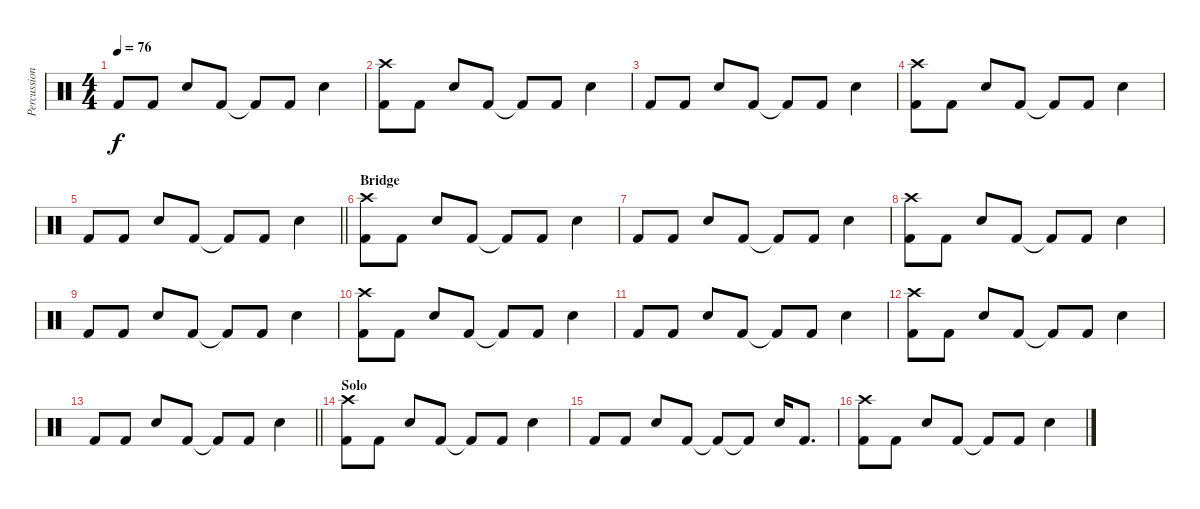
\track ("Percussion" "Percussion") {instrument percussion}
\staff {score}
\articulation defaults
\ts (4 4)
\tempo 76
\clef neutral
\ks c "Kick (hit) 2".8{dy f} "Kick (hit) 2".8 "Electric Snare (hit)".8 "Kick (hit) 2".8 "Kick (hit) 2"{t}.8 "Kick (hit) 2".8 "Electric Snare (hit)".4
|
("Kick (hit) 2" "Crash high (hit)").8 "Kick (hit) 2".8 "Electric Snare (hit)".8 "Kick (hit) 2".8 "Kick (hit) 2"{t}.8 "Kick (hit) 2".8 "Electric Snare (hit)".4 |
"Kick (hit) 2".8 "Kick (hit) 2".8 "Electric Snare (hit)".8 "Kick (hit) 2".8 "Kick (hit) 2"{t}.8 "Kick (hit) 2".8 "Electric Snare (hit)".4 |
("Kick (hit) 2" "Crash high (hit)").8 "Kick (hit) 2".8 "Electric Snare (hit)".8 "Kick (hit) 2".8 "Kick (hit) 2"{t}.8 "Kick (hit) 2".8 "Electric Snare (hit)".4 |
\barLineRight lightlight "Kick (hit) 2".8 "Kick (hit) 2".8 "Electric Snare (hit)".8 "Kick (hit) 2".8 "Kick (hit) 2"{t}.8 "Kick (hit) 2".8 "Electric Snare (hit)".4
|
\section ("" "Bridge")
("Kick (hit) 2" "Crash high (hit)").8 "Kick (hit) 2".8 "Electric Snare (hit)".8 "Kick (hit) 2".8 "Kick (hit) 2"{t}.8 "Kick (hit) 2".8 "Electric Snare (hit)".4 |
"Kick (hit) 2".8 "Kick (hit) 2".8 "Electric Snare (hit)".8 "Kick (hit) 2".8 "Kick (hit) 2"{t}.8 "Kick (hit) 2".8 "Electric Snare (hit)".4 |
("Kick (hit) 2" "Crash high (hit)").8 "Kick (hit) 2".8 "Electric Snare (hit)".8 "Kick (hit) 2".8 "Kick (hit) 2"{t}.8 "Kick (hit) 2".8 "Electric Snare (hit)".4 |
"Kick (hit) 2".8 "Kick (hit) 2".8 "Electric Snare (hit)".8 "Kick (hit) 2".8 "Kick (hit) 2"{t}.8 "Kick (hit) 2".8 "Electric Snare (hit)".4 |
("Kick (hit) 2" "Crash high (hit)").8 "Kick (hit) 2".8 "Electric Snare (hit)".8 "Kick (hit) 2".8 "Kick (hit) 2"{t}.8 "Kick (hit) 2".8 "Electric Snare (hit)".4 |
"Kick (hit) 2".8 "Kick (hit) 2".8 "Electric Snare (hit)".8 "Kick (hit) 2".8 "Kick (hit) 2"{t}.8 "Kick (hit) 2".8 "Electric Snare (hit)".4 |
("Kick (hit) 2" "Crash high (hit)").8 "Kick (hit) 2".8 "Electric Snare (hit)".8 "Kick (hit) 2".8 "Kick (hit) 2"{t}.8 "Kick (hit) 2".8 "Electric Snare (hit)".4 |
\barLineRight lightlight "Kick (hit) 2".8 "Kick (hit) 2".8 "Electric Snare (hit)".8 "Kick (hit) 2".8 "Kick (hit) 2"{t}.8 "Kick (hit) 2".8 "Electric Snare (hit)".4
|
\section ("" "Solo")
("Kick (hit) 2" "Crash high (hit)").8 "Kick (hit) 2".8 "Electric Snare (hit)".8 "Kick (hit) 2".8 "Kick (hit) 2"{t}.8 "Kick (hit) 2".8 "Electric Snare (hit)".4 |
"Kick (hit) 2".8 "Kick (hit) 2".8 "Electric Snare (hit)".8 "Kick (hit) 2".8 "Kick (hit) 2"{t}.8 "Kick (hit) 2"{t}.8 "Electric Snare (hit)".16 "Kick (hit) 2".8{d} |
("Kick (hit) 2" "Crash high (hit)").8 "Kick (hit) 2".8 "Electric Snare (hit)".8 "Kick (hit) 2".8 "Kick (hit) 2"{t}.8 "Kick (hit) 2".8 "Electric Snare (hit)".4
